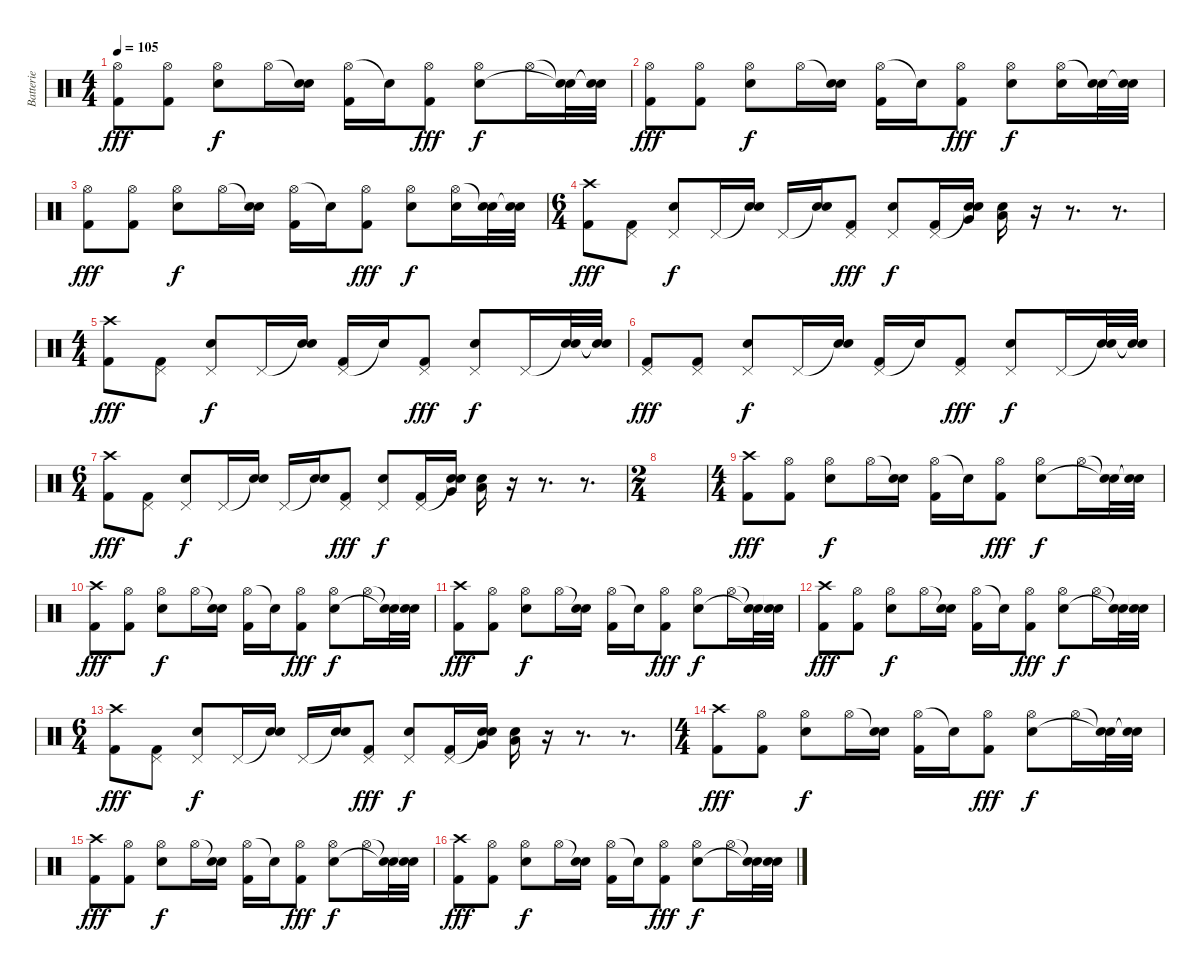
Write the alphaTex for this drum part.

\track ("Batterie" "Batterie") {instrument percussion}
\staff {score}
\articulation defaults
\ts (4 4)
\tempo 105
\clef neutral
\ks c
("Hi-Hat (open)" "Kick (hit) 2").8{dy fff} ("Hi-Hat (open)" "Kick (hit) 2").8 ("Hi-Hat (open)" "Electric Snare (hit)").8{dy f} "Hi-Hat (open)".16 ("Snare (hit)"{t} "Electric Snare (hit)").16 ("Hi-Hat (open)" "Kick (hit) 2").16 "Snare (hit)"{t}.16 ("Hi-Hat (open)" "Kick (hit) 2").8{dy fff} ("Hi-Hat (open)" "Electric Snare (hit)").8{dy f} "Hi-Hat (open)".16 ("Snare (hit)"{t} "Snare (hit) 2"{t}).32 ("Snare (hit)"{t} "Snare (hit) 2"{t}).32 |
("Hi-Hat (open)" "Kick (hit) 2").8{dy fff} ("Hi-Hat (open)" "Kick (hit) 2").8 ("Hi-Hat (open)" "Electric Snare (hit)").8{dy f} "Hi-Hat (open)".16 ("Snare (hit)"{t} "Electric Snare (hit)").16 ("Hi-Hat (open)" "Kick (hit) 2").16 "Snare (hit)"{t}.16 ("Hi-Hat (open)" "Kick (hit) 2").8{dy fff} ("Hi-Hat (open)" "Electric Snare (hit)").8{dy f} ("Hi-Hat (open)" "Electric Snare (hit)").16 ("Snare (hit)"{t} "Electric Snare (hit)").32 ("Snare (hit)"{t} "Electric Snare (hit)").32 |
("Hi-Hat (open)" "Kick (hit) 2").8{dy fff} ("Hi-Hat (open)" "Kick (hit) 2").8 ("Hi-Hat (open)" "Electric Snare (hit)").8{dy f} "Hi-Hat (open)".16 ("Snare (hit)"{t} "Electric Snare (hit)").16 ("Hi-Hat (open)" "Kick (hit) 2").16 "Snare (hit)"{t}.16 ("Hi-Hat (open)" "Kick (hit) 2").8{dy fff} ("Hi-Hat (open)" "Electric Snare (hit)").8{dy f} ("Hi-Hat (open)" "Electric Snare (hit)").16 ("Snare (hit)"{t} "Electric Snare (hit)").32 ("Snare (hit)"{t} "Electric Snare (hit)").32 |
\ts (6 4)
("Crash high (hit)" "Kick (hit) 2").8{dy fff} ("Pedal Hi-Hat (hit)" "Kick (hit) 2").8 ("Pedal Hi-Hat (hit)" "Electric Snare (hit)").8{dy f} "Pedal Hi-Hat (hit)".16 ("Snare (hit)"{t} "Electric Snare (hit)").16 "Pedal Hi-Hat (hit)".16 ("Snare (hit)"{t} "Electric Snare (hit)").16 ("Pedal Hi-Hat (hit)" "Kick (hit) 2").8{dy fff} ("Pedal Hi-Hat (hit)" "Electric Snare (hit)").8{dy f} ("Pedal Hi-Hat (hit)" "Kick (hit) 2").16 ("Electric Snare (hit)"{t} "Electric Snare (hit)" "Very Low Tom (hit)").16 ("Electric Snare (hit)" "Low Tom (hit)").16 r.16 r.8{d} r.8{d} |
\ts (4 4)
("Crash high (hit)" "Kick (hit) 2").8{dy fff} ("Pedal Hi-Hat (hit)" "Kick (hit) 2").8 ("Pedal Hi-Hat (hit)" "Electric Snare (hit)").8{dy f} "Pedal Hi-Hat (hit)".16 ("Snare (hit)"{t} "Electric Snare (hit)").16 ("Pedal Hi-Hat (hit)" "Kick (hit) 2").16 "Snare (hit)"{t}.16 ("Pedal Hi-Hat (hit)" "Kick (hit) 2").8{dy fff} ("Pedal Hi-Hat (hit)" "Electric Snare (hit)").8{dy f} "Pedal Hi-Hat (hit)".16 ("Snare (hit)"{t} "Electric Snare (hit)").32 ("Snare (hit)"{t} "Snare (hit) 2"{t}).32 |
("Pedal Hi-Hat (hit)" "Kick (hit) 2").8{dy fff} ("Pedal Hi-Hat (hit)" "Kick (hit) 2").8 ("Pedal Hi-Hat (hit)" "Electric Snare (hit)").8{dy f} "Pedal Hi-Hat (hit)".16 ("Snare (hit)"{t} "Electric Snare (hit)").16 ("Pedal Hi-Hat (hit)" "Kick (hit) 2").16 "Snare (hit)"{t}.16 ("Pedal Hi-Hat (hit)" "Kick (hit) 2").8{dy fff} ("Pedal Hi-Hat (hit)" "Electric Snare (hit)").8{dy f} "Pedal Hi-Hat (hit)".16 ("Snare (hit)"{t} "Electric Snare (hit)").32 ("Snare (hit)"{t} "Snare (hit) 2"{t}).32 |
\ts (6 4)
("Crash high (hit)" "Kick (hit) 2").8{dy fff} ("Pedal Hi-Hat (hit)" "Kick (hit) 2").8 ("Pedal Hi-Hat (hit)" "Electric Snare (hit)").8{dy f} "Pedal Hi-Hat (hit)".16 ("Snare (hit)"{t} "Electric Snare (hit)").16 "Pedal Hi-Hat (hit)".16 ("Snare (hit)"{t} "Electric Snare (hit)").16 ("Pedal Hi-Hat (hit)" "Kick (hit) 2").8{dy fff} ("Pedal Hi-Hat (hit)" "Electric Snare (hit)").8{dy f} ("Pedal Hi-Hat (hit)" "Kick (hit) 2").16 ("Electric Snare (hit)"{t} "Electric Snare (hit)" "Very Low Tom (hit)").16 ("Electric Snare (hit)" "Low Tom (hit)").16 r.16 r.8{d} r.8{d} |
\ts (2 4)
|
\ts (4 4)
("Crash high (hit)" "Kick (hit) 2").8{dy fff} ("Hi-Hat (open)" "Kick (hit) 2").8 ("Hi-Hat (open)" "Electric Snare (hit)").8{dy f} "Hi-Hat (open)".16 ("Snare (hit)"{t} "Electric Snare (hit)").16 ("Hi-Hat (open)" "Kick (hit) 2").16 "Snare (hit)"{t}.16 ("Hi-Hat (open)" "Kick (hit) 2").8{dy fff} ("Hi-Hat (open)" "Electric Snare (hit)").8{dy f} "Hi-Hat (open)".16 ("Snare (hit)"{t} "Snare (hit) 2"{t}).32 ("Snare (hit)"{t} "Snare (hit) 2"{t}).32 |
("Crash high (hit)" "Kick (hit) 2").8{dy fff} ("Hi-Hat (open)" "Kick (hit) 2").8 ("Hi-Hat (open)" "Electric Snare (hit)").8{dy f} "Hi-Hat (open)".16 ("Snare (hit)"{t} "Electric Snare (hit)").16 ("Hi-Hat (open)" "Kick (hit) 2").16 "Snare (hit)"{t}.16 ("Hi-Hat (open)" "Kick (hit) 2").8{dy fff} ("Hi-Hat (open)" "Electric Snare (hit)").8{dy f} "Hi-Hat (open)".16 ("Snare (hit)"{t} "Snare (hit) 2"{t}).32 ("Snare (hit)"{t} "Snare (hit) 2"{t}).32 |
("Crash high (hit)" "Kick (hit) 2").8{dy fff} ("Hi-Hat (open)" "Kick (hit) 2").8 ("Hi-Hat (open)" "Electric Snare (hit)").8{dy f} "Hi-Hat (open)".16 ("Snare (hit)"{t} "Electric Snare (hit)").16 ("Hi-Hat (open)" "Kick (hit) 2").16 "Snare (hit)"{t}.16 ("Hi-Hat (open)" "Kick (hit) 2").8{dy fff} ("Hi-Hat (open)" "Electric Snare (hit)").8{dy f} "Hi-Hat (open)".16 ("Snare (hit)"{t} "Snare (hit) 2"{t}).32 ("Snare (hit)"{t} "Snare (hit) 2"{t}).32 |
("Crash high (hit)" "Kick (hit) 2").8{dy fff} ("Hi-Hat (open)" "Kick (hit) 2").8 ("Hi-Hat (open)" "Electric Snare (hit)").8{dy f} "Hi-Hat (open)".16 ("Snare (hit)"{t} "Electric Snare (hit)").16 ("Hi-Hat (open)" "Kick (hit) 2").16 "Snare (hit)"{t}.16 ("Hi-Hat (open)" "Kick (hit) 2").8{dy fff} ("Hi-Hat (open)" "Electric Snare (hit)").8{dy f} "Hi-Hat (open)".16 ("Snare (hit)"{t} "Snare (hit) 2"{t}).32 ("Snare (hit)"{t} "Snare (hit) 2"{t}).32 |
\ts (6 4)
("Crash high (hit)" "Kick (hit) 2").8{dy fff} ("Pedal Hi-Hat (hit)" "Kick (hit) 2").8 ("Pedal Hi-Hat (hit)" "Electric Snare (hit)").8{dy f} "Pedal Hi-Hat (hit)".16 ("Snare (hit)"{t} "Electric Snare (hit)").16 "Pedal Hi-Hat (hit)".16 ("Snare (hit)"{t} "Electric Snare (hit)").16 ("Pedal Hi-Hat (hit)" "Kick (hit) 2").8{dy fff} ("Pedal Hi-Hat (hit)" "Electric Snare (hit)").8{dy f} ("Pedal Hi-Hat (hit)" "Kick (hit) 2").16 ("Electric Snare (hit)"{t} "Electric Snare (hit)" "Very Low Tom (hit)").16 ("Electric Snare (hit)" "Low Tom (hit)").16 r.16 r.8{d} r.8{d} |
\ts (4 4)
("Crash high (hit)" "Kick (hit) 2").8{dy fff} ("Hi-Hat (open)" "Kick (hit) 2").8 ("Hi-Hat (open)" "Electric Snare (hit)").8{dy f} "Hi-Hat (open)".16 ("Snare (hit)"{t} "Electric Snare (hit)").16 ("Hi-Hat (open)" "Kick (hit) 2").16 "Snare (hit)"{t}.16 ("Hi-Hat (open)" "Kick (hit) 2").8{dy fff} ("Hi-Hat (open)" "Electric Snare (hit)").8{dy f} "Hi-Hat (open)".16 ("Snare (hit)"{t} "Snare (hit) 2"{t}).32 ("Snare (hit)"{t} "Snare (hit) 2"{t}).32 |
("Crash high (hit)" "Kick (hit) 2").8{dy fff} ("Hi-Hat (open)" "Kick (hit) 2").8 ("Hi-Hat (open)" "Electric Snare (hit)").8{dy f} "Hi-Hat (open)".16 ("Snare (hit)"{t} "Electric Snare (hit)").16 ("Hi-Hat (open)" "Kick (hit) 2").16 "Snare (hit)"{t}.16 ("Hi-Hat (open)" "Kick (hit) 2").8{dy fff} ("Hi-Hat (open)" "Electric Snare (hit)").8{dy f} "Hi-Hat (open)".16 ("Snare (hit)"{t} "Snare (hit) 2"{t}).32 ("Snare (hit)"{t} "Snare (hit) 2"{t}).32 |
("Crash high (hit)" "Kick (hit) 2").8{dy fff} ("Hi-Hat (open)" "Kick (hit) 2").8 ("Hi-Hat (open)" "Electric Snare (hit)").8{dy f} "Hi-Hat (open)".16 ("Snare (hit)"{t} "Electric Snare (hit)").16 ("Hi-Hat (open)" "Kick (hit) 2").16 "Snare (hit)"{t}.16 ("Hi-Hat (open)" "Kick (hit) 2").8{dy fff} ("Hi-Hat (open)" "Electric Snare (hit)").8{dy f} "Hi-Hat (open)".16 ("Snare (hit)"{t} "Snare (hit) 2"{t}).32 ("Snare (hit)"{t} "Snare (hit) 2"{t}).32
